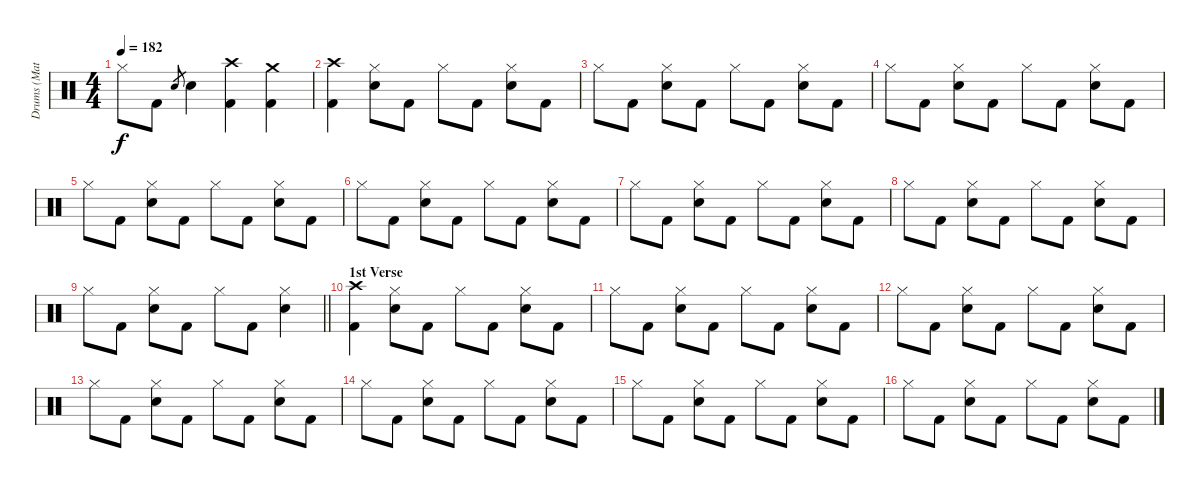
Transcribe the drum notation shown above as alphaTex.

\track ("Drums (Matt)" "Drums (Mat") {instrument percussion}
\staff {score}
\articulation defaults
\ts (4 4)
\tempo 182
\clef neutral
\ks c "Hi-Hat (closed)".8{dy f} "Kick (hit) 2".8 "Snare (hit) 2".8{gr} "Snare (hit) 2".4
("Crash high (hit)" "Kick (hit) 2").4 ("Crash medium (hit)" "Kick (hit) 2").4 |
("Crash high (hit)" "Kick (hit) 2").4 ("Hi-Hat (closed)" "Snare (hit) 2").8 "Kick (hit) 2".8 "Hi-Hat (closed)".8 "Kick (hit) 2".8 ("Hi-Hat (closed)" "Snare (hit) 2").8 "Kick (hit) 2".8 |
"Hi-Hat (closed)".8 "Kick (hit) 2".8 ("Hi-Hat (closed)" "Snare (hit) 2").8 "Kick (hit) 2".8 "Hi-Hat (closed)".8 "Kick (hit) 2".8 ("Hi-Hat (closed)" "Snare (hit) 2").8 "Kick (hit) 2".8 |
"Hi-Hat (closed)".8 "Kick (hit) 2".8 ("Hi-Hat (closed)" "Snare (hit) 2").8 "Kick (hit) 2".8 "Hi-Hat (closed)".8 "Kick (hit) 2".8 ("Hi-Hat (closed)" "Snare (hit) 2").8 "Kick (hit) 2".8 |
"Hi-Hat (closed)".8 "Kick (hit) 2".8 ("Hi-Hat (closed)" "Snare (hit) 2").8 "Kick (hit) 2".8 "Hi-Hat (closed)".8 "Kick (hit) 2".8 ("Hi-Hat (closed)" "Snare (hit) 2").8 "Kick (hit) 2".8 |
"Hi-Hat (closed)".8 "Kick (hit) 2".8 ("Hi-Hat (closed)" "Snare (hit) 2").8 "Kick (hit) 2".8 "Hi-Hat (closed)".8 "Kick (hit) 2".8 ("Hi-Hat (closed)" "Snare (hit) 2").8 "Kick (hit) 2".8 |
"Hi-Hat (closed)".8 "Kick (hit) 2".8 ("Hi-Hat (closed)" "Snare (hit) 2").8 "Kick (hit) 2".8 "Hi-Hat (closed)".8 "Kick (hit) 2".8 ("Hi-Hat (closed)" "Snare (hit) 2").8 "Kick (hit) 2".8 |
"Hi-Hat (closed)".8 "Kick (hit) 2".8 ("Hi-Hat (closed)" "Snare (hit) 2").8 "Kick (hit) 2".8 "Hi-Hat (closed)".8 "Kick (hit) 2".8 ("Hi-Hat (closed)" "Snare (hit) 2").8 "Kick (hit) 2".8 |
\barLineRight lightlight "Hi-Hat (closed)".8 "Kick (hit) 2".8
("Hi-Hat (closed)" "Snare (hit) 2").8 "Kick (hit) 2".8 "Hi-Hat (closed)".8 "Kick (hit) 2".8 ("Hi-Hat (closed)" "Snare (hit) 2").4 |
\section ("" "1st Verse")
("Crash high (hit)" "Kick (hit) 2").4 ("Hi-Hat (closed)" "Snare (hit) 2").8 "Kick (hit) 2".8 "Hi-Hat (closed)".8 "Kick (hit) 2".8 ("Hi-Hat (closed)" "Snare (hit) 2").8 "Kick (hit) 2".8 |
"Hi-Hat (closed)".8 "Kick (hit) 2".8 ("Hi-Hat (closed)" "Snare (hit) 2").8 "Kick (hit) 2".8 "Hi-Hat (closed)".8 "Kick (hit) 2".8 ("Hi-Hat (closed)" "Snare (hit) 2").8 "Kick (hit) 2".8 |
"Hi-Hat (closed)".8 "Kick (hit) 2".8 ("Hi-Hat (closed)" "Snare (hit) 2").8 "Kick (hit) 2".8 "Hi-Hat (closed)".8 "Kick (hit) 2".8 ("Hi-Hat (closed)" "Snare (hit) 2").8 "Kick (hit) 2".8 |
"Hi-Hat (closed)".8 "Kick (hit) 2".8 ("Hi-Hat (closed)" "Snare (hit) 2").8 "Kick (hit) 2".8 "Hi-Hat (closed)".8 "Kick (hit) 2".8 ("Hi-Hat (closed)" "Snare (hit) 2").8 "Kick (hit) 2".8 |
"Hi-Hat (closed)".8 "Kick (hit) 2".8 ("Hi-Hat (closed)" "Snare (hit) 2").8 "Kick (hit) 2".8 "Hi-Hat (closed)".8 "Kick (hit) 2".8 ("Hi-Hat (closed)" "Snare (hit) 2").8 "Kick (hit) 2".8 |
"Hi-Hat (closed)".8 "Kick (hit) 2".8 ("Hi-Hat (closed)" "Snare (hit) 2").8 "Kick (hit) 2".8 "Hi-Hat (closed)".8 "Kick (hit) 2".8 ("Hi-Hat (closed)" "Snare (hit) 2").8 "Kick (hit) 2".8 |
"Hi-Hat (closed)".8 "Kick (hit) 2".8 ("Hi-Hat (closed)" "Snare (hit) 2").8 "Kick (hit) 2".8 "Hi-Hat (closed)".8 "Kick (hit) 2".8 ("Hi-Hat (closed)" "Snare (hit) 2").8 "Kick (hit) 2".8
